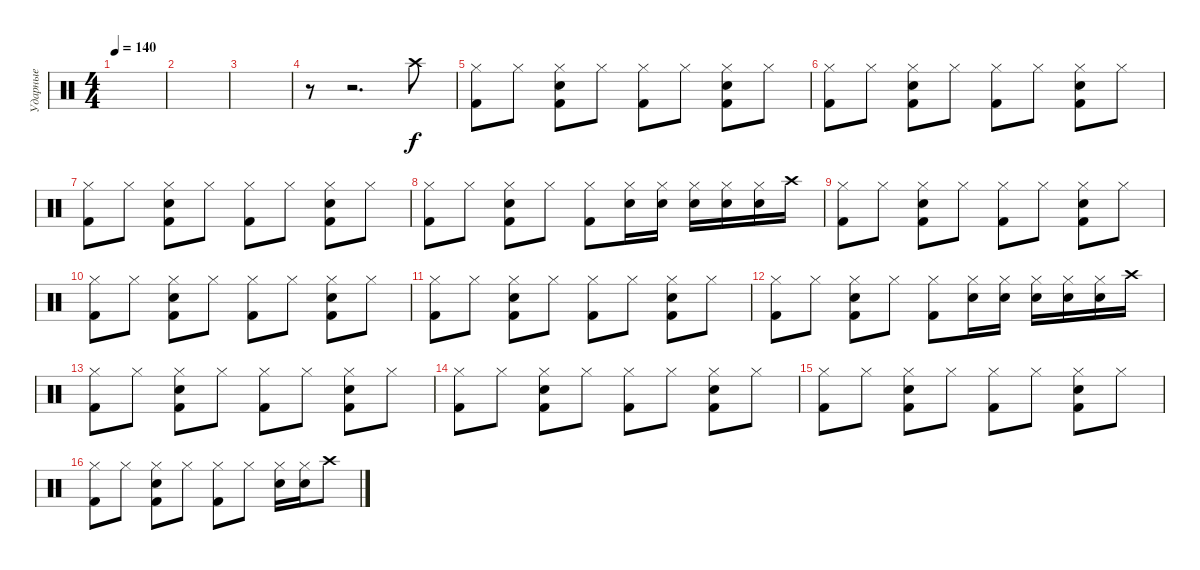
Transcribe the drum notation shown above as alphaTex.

\track ("Ударные" "Ударные") {instrument percussion}
\staff {score}
\articulation defaults
\ts (4 4)
\tempo 140
\clef neutral
\ks c
|
|
|
r.8 r.2{d} "Crash high (hit)".8 |
("Hi-Hat (closed)" "Kick (hit) 2").8 "Hi-Hat (closed)".8 ("Hi-Hat (closed)" "Kick (hit) 2" "Snare (hit) 2").8 "Hi-Hat (closed)".8 ("Hi-Hat (closed)" "Kick (hit) 2").8 "Hi-Hat (closed)".8 ("Hi-Hat (closed)" "Kick (hit) 2" "Snare (hit) 2").8 "Hi-Hat (closed)".8 |
("Hi-Hat (closed)" "Kick (hit) 2").8 "Hi-Hat (closed)".8 ("Hi-Hat (closed)" "Kick (hit) 2" "Snare (hit) 2").8 "Hi-Hat (closed)".8 ("Hi-Hat (closed)" "Kick (hit) 2").8 "Hi-Hat (closed)".8 ("Hi-Hat (closed)" "Kick (hit) 2" "Snare (hit) 2").8 "Hi-Hat (closed)".8 |
("Hi-Hat (closed)" "Kick (hit) 2").8 "Hi-Hat (closed)".8 ("Hi-Hat (closed)" "Kick (hit) 2" "Snare (hit) 2").8 "Hi-Hat (closed)".8 ("Hi-Hat (closed)" "Kick (hit) 2").8 "Hi-Hat (closed)".8 ("Hi-Hat (closed)" "Kick (hit) 2" "Snare (hit) 2").8 "Hi-Hat (closed)".8 |
("Hi-Hat (closed)" "Kick (hit) 2").8 "Hi-Hat (closed)".8 ("Hi-Hat (closed)" "Kick (hit) 2" "Snare (hit) 2").8 "Hi-Hat (closed)".8 ("Hi-Hat (closed)" "Kick (hit) 2").8 ("Hi-Hat (closed)" "Snare (hit) 2").16 ("Hi-Hat (closed)" "Snare (hit) 2").16 ("Hi-Hat (closed)" "Snare (hit) 2").16 ("Hi-Hat (closed)" "Snare (hit) 2").16 ("Hi-Hat (closed)" "Snare (hit) 2").16 "Crash high (hit)".16 |
("Hi-Hat (closed)" "Kick (hit) 2").8 "Hi-Hat (closed)".8 ("Hi-Hat (closed)" "Kick (hit) 2" "Snare (hit) 2").8 "Hi-Hat (closed)".8 ("Hi-Hat (closed)" "Kick (hit) 2").8 "Hi-Hat (closed)".8 ("Hi-Hat (closed)" "Kick (hit) 2" "Snare (hit) 2").8 "Hi-Hat (closed)".8 |
("Hi-Hat (closed)" "Kick (hit) 2").8 "Hi-Hat (closed)".8 ("Hi-Hat (closed)" "Kick (hit) 2" "Snare (hit) 2").8 "Hi-Hat (closed)".8 ("Hi-Hat (closed)" "Kick (hit) 2").8 "Hi-Hat (closed)".8 ("Hi-Hat (closed)" "Kick (hit) 2" "Snare (hit) 2").8 "Hi-Hat (closed)".8 |
("Hi-Hat (closed)" "Kick (hit) 2").8 "Hi-Hat (closed)".8 ("Hi-Hat (closed)" "Kick (hit) 2" "Snare (hit) 2").8 "Hi-Hat (closed)".8 ("Hi-Hat (closed)" "Kick (hit) 2").8 "Hi-Hat (closed)".8 ("Hi-Hat (closed)" "Kick (hit) 2" "Snare (hit) 2").8 "Hi-Hat (closed)".8 |
("Hi-Hat (closed)" "Kick (hit) 2").8 "Hi-Hat (closed)".8 ("Hi-Hat (closed)" "Kick (hit) 2" "Snare (hit) 2").8 "Hi-Hat (closed)".8 ("Hi-Hat (closed)" "Kick (hit) 2").8 ("Hi-Hat (closed)" "Snare (hit) 2").16 ("Hi-Hat (closed)" "Snare (hit) 2").16 ("Hi-Hat (closed)" "Snare (hit) 2").16 ("Hi-Hat (closed)" "Snare (hit) 2").16 ("Hi-Hat (closed)" "Snare (hit) 2").16 "Crash high (hit)".16 |
("Hi-Hat (closed)" "Kick (hit) 2").8 "Hi-Hat (closed)".8 ("Hi-Hat (closed)" "Kick (hit) 2" "Snare (hit) 2").8 "Hi-Hat (closed)".8 ("Hi-Hat (closed)" "Kick (hit) 2").8 "Hi-Hat (closed)".8 ("Hi-Hat (closed)" "Kick (hit) 2" "Snare (hit) 2").8 "Hi-Hat (closed)".8 |
("Hi-Hat (closed)" "Kick (hit) 2").8 "Hi-Hat (closed)".8 ("Hi-Hat (closed)" "Kick (hit) 2" "Snare (hit) 2").8 "Hi-Hat (closed)".8 ("Hi-Hat (closed)" "Kick (hit) 2").8 "Hi-Hat (closed)".8 ("Hi-Hat (closed)" "Kick (hit) 2" "Snare (hit) 2").8 "Hi-Hat (closed)".8 |
("Hi-Hat (closed)" "Kick (hit) 2").8 "Hi-Hat (closed)".8 ("Hi-Hat (closed)" "Kick (hit) 2" "Snare (hit) 2").8 "Hi-Hat (closed)".8 ("Hi-Hat (closed)" "Kick (hit) 2").8 "Hi-Hat (closed)".8 ("Hi-Hat (closed)" "Kick (hit) 2" "Snare (hit) 2").8 "Hi-Hat (closed)".8 |
("Hi-Hat (closed)" "Kick (hit) 2").8 "Hi-Hat (closed)".8 ("Hi-Hat (closed)" "Kick (hit) 2" "Snare (hit) 2").8 "Hi-Hat (closed)".8 ("Hi-Hat (closed)" "Kick (hit) 2").8 "Hi-Hat (closed)".8 ("Hi-Hat (closed)" "Snare (hit) 2").16 ("Hi-Hat (closed)" "Snare (hit) 2").16 "Crash high (hit)".8
